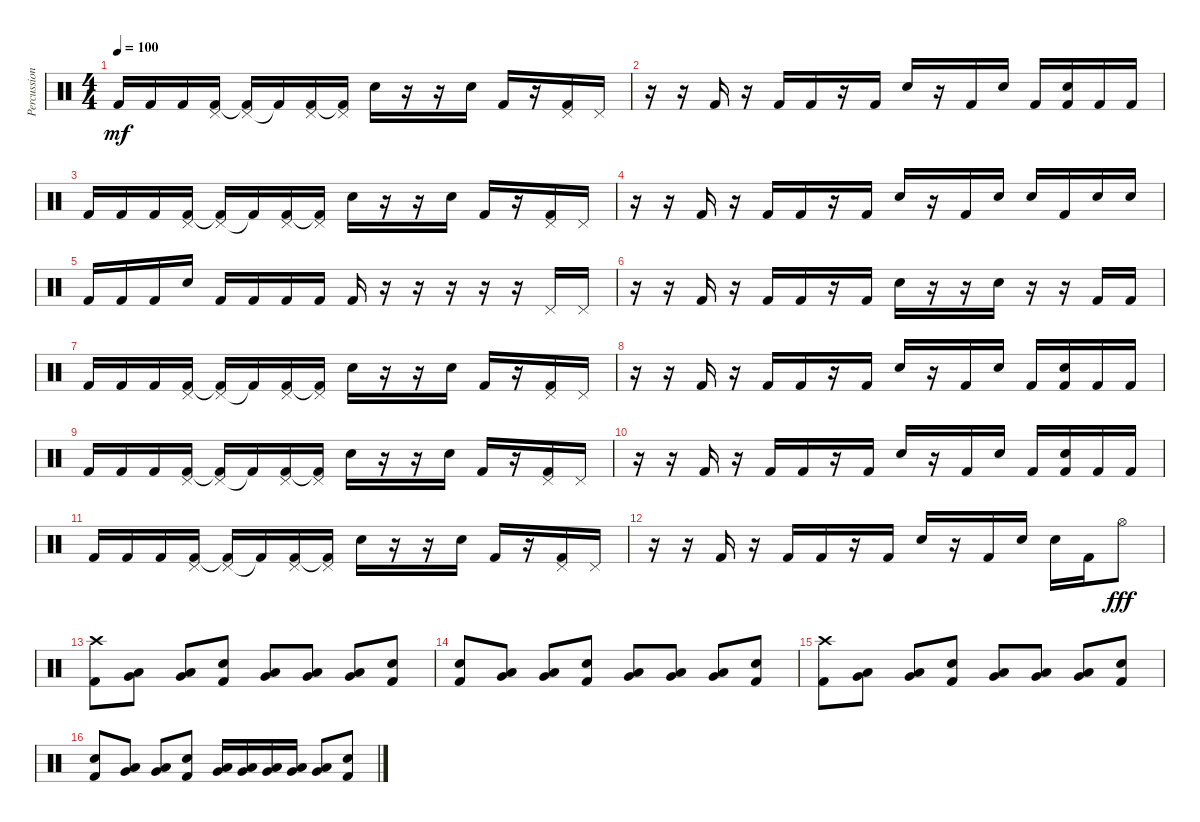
\track ("Percussion" "Percussion") {instrument percussion}
\staff {score}
\articulation defaults
\ts (4 4)
\tempo 100
\clef neutral
\ks c "Kick (hit) 2".16{dy mf} "Kick (hit) 2".16 "Kick (hit) 2".16
("Pedal Hi-Hat (hit)" "Kick (hit) 2").16 ("Pedal Hi-Hat (hit)" "Kick (hit) 2"{t}).16 "Kick (hit) 2"{t}.16 ("Pedal Hi-Hat (hit)" "Kick (hit) 2").16 ("Pedal Hi-Hat (hit)" "Kick (hit) 2"{t}).16 "Electric Snare (hit)".16 r.16 r.16 "Electric Snare (hit)".16 "Kick (hit) 2".16 r.16 ("Pedal Hi-Hat (hit)" "Kick (hit) 2").16 "Pedal Hi-Hat (hit)".16 |
r.16 r.16 "Kick (hit) 2".16 r.16 "Kick (hit) 2".16 "Kick (hit) 2".16 r.16 "Kick (hit) 2".16 "Electric Snare (hit)".16 r.16 "Kick (hit) 2".16 "Electric Snare (hit)".16 "Kick (hit) 2".16 ("Electric Snare (hit)" "Kick (hit) 2").16 "Kick (hit) 2".16 "Kick (hit) 2".16 |
"Kick (hit) 2".16 "Kick (hit) 2".16 "Kick (hit) 2".16 ("Pedal Hi-Hat (hit)" "Kick (hit) 2").16 ("Pedal Hi-Hat (hit)" "Kick (hit) 2"{t}).16 "Kick (hit) 2"{t}.16 ("Pedal Hi-Hat (hit)" "Kick (hit) 2").16 ("Pedal Hi-Hat (hit)" "Kick (hit) 2"{t}).16 "Electric Snare (hit)".16 r.16 r.16 "Electric Snare (hit)".16 "Kick (hit) 2".16 r.16 ("Pedal Hi-Hat (hit)" "Kick (hit) 2").16 "Pedal Hi-Hat (hit)".16 |
r.16 r.16 "Kick (hit) 2".16 r.16 "Kick (hit) 2".16 "Kick (hit) 2".16 r.16 "Kick (hit) 2".16 "Electric Snare (hit)".16 r.16 "Kick (hit) 2".16 "Electric Snare (hit)".16 "Electric Snare (hit)".16 "Kick (hit) 2".16 "Electric Snare (hit)".16 "Electric Snare (hit)".16 |
"Kick (hit) 2".16 "Kick (hit) 2".16 "Kick (hit) 2".16 "Snare (hit) 2".16 "Kick (hit) 2".16 "Kick (hit) 2".16 "Kick (hit) 2".16 "Kick (hit) 2".16 "Kick (hit) 2".16 r.16 r.16 r.16 r.16 r.16 "Pedal Hi-Hat (hit)".16 "Pedal Hi-Hat (hit)".16 |
r.16 r.16 "Kick (hit) 2".16 r.16 "Kick (hit) 2".16 "Kick (hit) 2".16 r.16 "Kick (hit) 2".16 "Electric Snare (hit)".16 r.16 r.16 "Electric Snare (hit)".16 r.16 r.16 "Kick (hit) 2".16 "Kick (hit) 2".16 |
"Kick (hit) 2".16 "Kick (hit) 2".16 "Kick (hit) 2".16 ("Pedal Hi-Hat (hit)" "Kick (hit) 2").16 ("Pedal Hi-Hat (hit)" "Kick (hit) 2"{t}).16 "Kick (hit) 2"{t}.16 ("Pedal Hi-Hat (hit)" "Kick (hit) 2").16 ("Pedal Hi-Hat (hit)" "Kick (hit) 2"{t}).16 "Electric Snare (hit)".16 r.16 r.16 "Electric Snare (hit)".16 "Kick (hit) 2".16 r.16 ("Pedal Hi-Hat (hit)" "Kick (hit) 2").16 "Pedal Hi-Hat (hit)".16 |
r.16 r.16 "Kick (hit) 2".16 r.16 "Kick (hit) 2".16 "Kick (hit) 2".16 r.16 "Kick (hit) 2".16 "Electric Snare (hit)".16 r.16 "Kick (hit) 2".16 "Electric Snare (hit)".16 "Kick (hit) 2".16 ("Electric Snare (hit)" "Kick (hit) 2").16 "Kick (hit) 2".16 "Kick (hit) 2".16 |
"Kick (hit) 2".16 "Kick (hit) 2".16 "Kick (hit) 2".16 ("Pedal Hi-Hat (hit)" "Kick (hit) 2").16 ("Pedal Hi-Hat (hit)" "Kick (hit) 2"{t}).16 "Kick (hit) 2"{t}.16 ("Pedal Hi-Hat (hit)" "Kick (hit) 2").16 ("Pedal Hi-Hat (hit)" "Kick (hit) 2"{t}).16 "Electric Snare (hit)".16 r.16 r.16 "Electric Snare (hit)".16 "Kick (hit) 2".16 r.16 ("Pedal Hi-Hat (hit)" "Kick (hit) 2").16 "Pedal Hi-Hat (hit)".16 |
r.16 r.16 "Kick (hit) 2".16 r.16 "Kick (hit) 2".16 "Kick (hit) 2".16 r.16 "Kick (hit) 2".16 "Electric Snare (hit)".16 r.16 "Kick (hit) 2".16 "Electric Snare (hit)".16 "Kick (hit) 2".16 ("Electric Snare (hit)" "Kick (hit) 2").16 "Kick (hit) 2".16 "Kick (hit) 2".16 |
"Kick (hit) 2".16 "Kick (hit) 2".16 "Kick (hit) 2".16 ("Pedal Hi-Hat (hit)" "Kick (hit) 2").16 ("Pedal Hi-Hat (hit)" "Kick (hit) 2"{t}).16 "Kick (hit) 2"{t}.16 ("Pedal Hi-Hat (hit)" "Kick (hit) 2").16 ("Pedal Hi-Hat (hit)" "Kick (hit) 2"{t}).16 "Electric Snare (hit)".16 r.16 r.16 "Electric Snare (hit)".16 "Kick (hit) 2".16 r.16 ("Pedal Hi-Hat (hit)" "Kick (hit) 2").16 "Pedal Hi-Hat (hit)".16 |
r.16 r.16 "Kick (hit) 2".16 r.16 "Kick (hit) 2".16 "Kick (hit) 2".16 r.16 "Kick (hit) 2".16 "Electric Snare (hit)".16 r.16 "Kick (hit) 2".16 "Electric Snare (hit)".16 "Electric Snare (hit)".16 "Kick (hit) 2".16 "Hi-Hat (open)".8{dy fff} |
("Crash high (hit)" "Kick (hit) 2").8 ("Very Low Tom (hit)" "Low Tom (hit)").8 ("Very Low Tom (hit)" "Low Tom (hit)").8 ("Kick (hit) 2" "Electric Snare (hit)").8 ("Very Low Tom (hit)" "Low Tom (hit)").8 ("Very Low Tom (hit)" "Low Tom (hit)").8 ("Very Low Tom (hit)" "Low Tom (hit)").8 ("Electric Snare (hit)" "Kick (hit) 2").8 |
("Electric Snare (hit)" "Kick (hit) 2").8 ("Very Low Tom (hit)" "Low Tom (hit)").8 ("Very Low Tom (hit)" "Low Tom (hit)").8 ("Kick (hit) 2" "Electric Snare (hit)").8 ("Very Low Tom (hit)" "Low Tom (hit)").8 ("Very Low Tom (hit)" "Low Tom (hit)").8 ("Very Low Tom (hit)" "Low Tom (hit)").8 ("Kick (hit) 2" "Electric Snare (hit)").8 |
("Crash high (hit)" "Kick (hit) 2").8 ("Very Low Tom (hit)" "Low Tom (hit)").8 ("Very Low Tom (hit)" "Low Tom (hit)").8 ("Kick (hit) 2" "Electric Snare (hit)").8 ("Very Low Tom (hit)" "Low Tom (hit)").8 ("Very Low Tom (hit)" "Low Tom (hit)").8 ("Very Low Tom (hit)" "Low Tom (hit)").8 ("Electric Snare (hit)" "Kick (hit) 2").8 |
("Electric Snare (hit)" "Kick (hit) 2").8 ("Very Low Tom (hit)" "Low Tom (hit)").8 ("Very Low Tom (hit)" "Low Tom (hit)").8 ("Kick (hit) 2" "Electric Snare (hit)").8 ("Very Low Tom (hit)" "Low Tom (hit)").16 ("Very Low Tom (hit)" "Low Tom (hit)").16 ("Very Low Tom (hit)" "Low Tom (hit)").16 ("Very Low Tom (hit)" "Low Tom (hit)").16 ("Very Low Tom (hit)" "Low Tom (hit)").8 ("Kick (hit) 2" "Electric Snare (hit)").8
